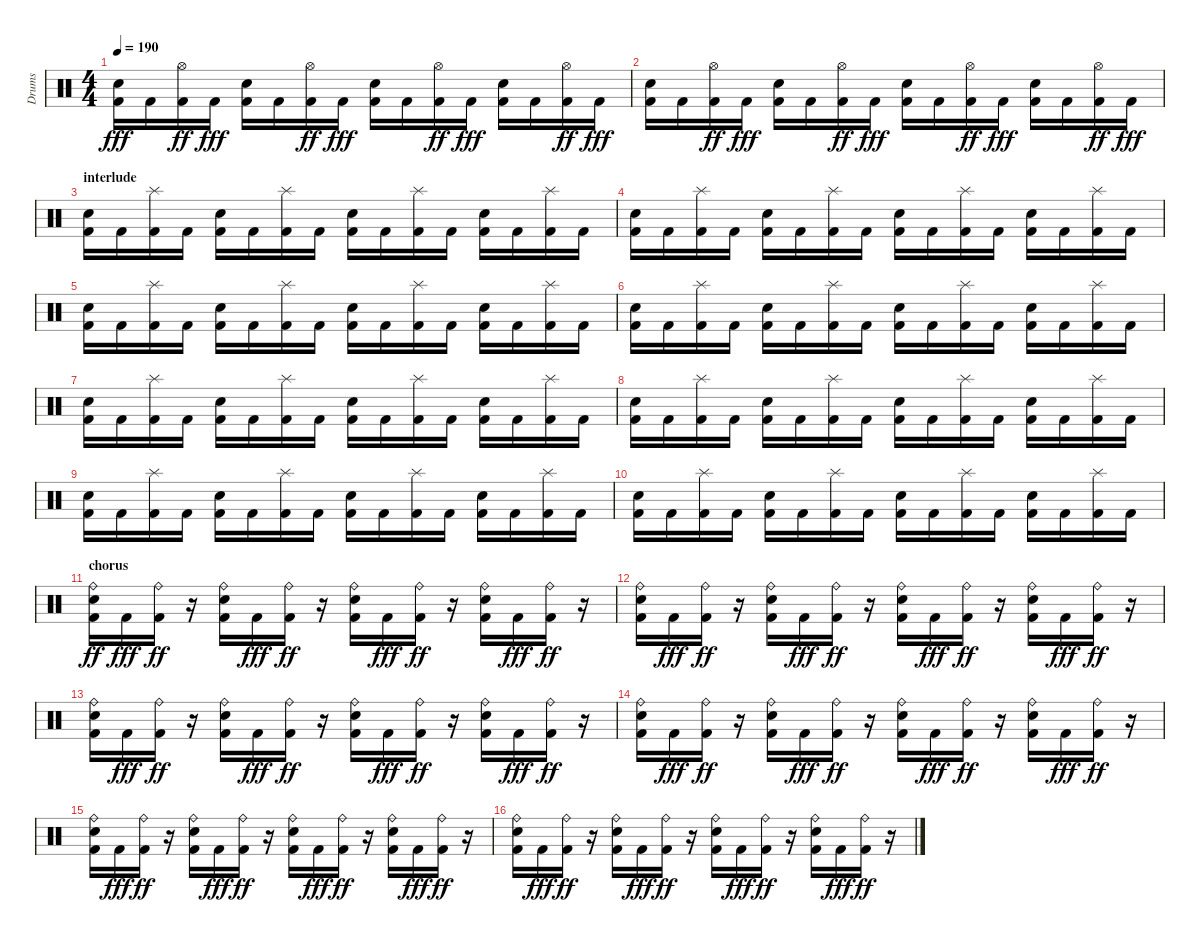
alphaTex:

\track ("Drums" "Drums") {instrument percussion}
\staff {score}
\articulation defaults
\ts (4 4)
\tempo 190
\clef neutral
\ks c
("Kick (hit) 2" "Electric Snare (hit)").16{dy fff} "Kick (hit) 2".16 ("Kick (hit) 2" "Hi-Hat (open)").16{dy ff} "Kick (hit) 2".16{dy fff} ("Kick (hit) 2" "Electric Snare (hit)").16 "Kick (hit) 2".16 ("Kick (hit) 2" "Hi-Hat (open)").16{dy ff} "Kick (hit) 2".16{dy fff} ("Kick (hit) 2" "Electric Snare (hit)").16 "Kick (hit) 2".16 ("Kick (hit) 2" "Hi-Hat (open)").16{dy ff} "Kick (hit) 2".16{dy fff} ("Kick (hit) 2" "Electric Snare (hit)").16 "Kick (hit) 2".16 ("Kick (hit) 2" "Hi-Hat (open)").16{dy ff} "Kick (hit) 2".16{dy fff} |
("Kick (hit) 2" "Electric Snare (hit)").16 "Kick (hit) 2".16 ("Kick (hit) 2" "Hi-Hat (open)").16{dy ff} "Kick (hit) 2".16{dy fff} ("Kick (hit) 2" "Electric Snare (hit)").16 "Kick (hit) 2".16 ("Kick (hit) 2" "Hi-Hat (open)").16{dy ff} "Kick (hit) 2".16{dy fff} ("Kick (hit) 2" "Electric Snare (hit)").16 "Kick (hit) 2".16 ("Kick (hit) 2" "Hi-Hat (open)").16{dy ff} "Kick (hit) 2".16{dy fff} ("Kick (hit) 2" "Electric Snare (hit)").16 "Kick (hit) 2".16 ("Kick (hit) 2" "Hi-Hat (open)").16{dy ff} "Kick (hit) 2".16{dy fff} |
\section ("" "interlude")
("Snare (hit) 2" "Kick (hit) 2").16 "Kick (hit) 2".16 ("Splash (hit)" "Kick (hit) 2").16 "Kick (hit) 2".16 ("Snare (hit) 2" "Kick (hit) 2").16 "Kick (hit) 2".16 ("Splash (hit)" "Kick (hit) 2").16 "Kick (hit) 2".16 ("Snare (hit) 2" "Kick (hit) 2").16 "Kick (hit) 2".16 ("Splash (hit)" "Kick (hit) 2").16 "Kick (hit) 2".16 ("Snare (hit) 2" "Kick (hit) 2").16 "Kick (hit) 2".16 ("Splash (hit)" "Kick (hit) 2").16 "Kick (hit) 2".16 |
("Snare (hit) 2" "Kick (hit) 2").16 "Kick (hit) 2".16 ("Splash (hit)" "Kick (hit) 2").16 "Kick (hit) 2".16 ("Snare (hit) 2" "Kick (hit) 2").16 "Kick (hit) 2".16 ("Splash (hit)" "Kick (hit) 2").16 "Kick (hit) 2".16 ("Snare (hit) 2" "Kick (hit) 2").16 "Kick (hit) 2".16 ("Splash (hit)" "Kick (hit) 2").16 "Kick (hit) 2".16 ("Snare (hit) 2" "Kick (hit) 2").16 "Kick (hit) 2".16 ("Splash (hit)" "Kick (hit) 2").16 "Kick (hit) 2".16 |
("Snare (hit) 2" "Kick (hit) 2").16 "Kick (hit) 2".16 ("Splash (hit)" "Kick (hit) 2").16 "Kick (hit) 2".16 ("Snare (hit) 2" "Kick (hit) 2").16 "Kick (hit) 2".16 ("Splash (hit)" "Kick (hit) 2").16 "Kick (hit) 2".16 ("Snare (hit) 2" "Kick (hit) 2").16 "Kick (hit) 2".16 ("Splash (hit)" "Kick (hit) 2").16 "Kick (hit) 2".16 ("Snare (hit) 2" "Kick (hit) 2").16 "Kick (hit) 2".16 ("Splash (hit)" "Kick (hit) 2").16 "Kick (hit) 2".16 |
("Snare (hit) 2" "Kick (hit) 2").16 "Kick (hit) 2".16 ("Splash (hit)" "Kick (hit) 2").16 "Kick (hit) 2".16 ("Snare (hit) 2" "Kick (hit) 2").16 "Kick (hit) 2".16 ("Splash (hit)" "Kick (hit) 2").16 "Kick (hit) 2".16 ("Snare (hit) 2" "Kick (hit) 2").16 "Kick (hit) 2".16 ("Splash (hit)" "Kick (hit) 2").16 "Kick (hit) 2".16 ("Snare (hit) 2" "Kick (hit) 2").16 "Kick (hit) 2".16 ("Splash (hit)" "Kick (hit) 2").16 "Kick (hit) 2".16 |
("Snare (hit) 2" "Kick (hit) 2").16 "Kick (hit) 2".16 ("Splash (hit)" "Kick (hit) 2").16 "Kick (hit) 2".16 ("Snare (hit) 2" "Kick (hit) 2").16 "Kick (hit) 2".16 ("Splash (hit)" "Kick (hit) 2").16 "Kick (hit) 2".16 ("Snare (hit) 2" "Kick (hit) 2").16 "Kick (hit) 2".16 ("Splash (hit)" "Kick (hit) 2").16 "Kick (hit) 2".16 ("Snare (hit) 2" "Kick (hit) 2").16 "Kick (hit) 2".16 ("Splash (hit)" "Kick (hit) 2").16 "Kick (hit) 2".16 |
("Snare (hit) 2" "Kick (hit) 2").16 "Kick (hit) 2".16 ("Splash (hit)" "Kick (hit) 2").16 "Kick (hit) 2".16 ("Snare (hit) 2" "Kick (hit) 2").16 "Kick (hit) 2".16 ("Splash (hit)" "Kick (hit) 2").16 "Kick (hit) 2".16 ("Snare (hit) 2" "Kick (hit) 2").16 "Kick (hit) 2".16 ("Splash (hit)" "Kick (hit) 2").16 "Kick (hit) 2".16 ("Snare (hit) 2" "Kick (hit) 2").16 "Kick (hit) 2".16 ("Splash (hit)" "Kick (hit) 2").16 "Kick (hit) 2".16 |
("Snare (hit) 2" "Kick (hit) 2").16 "Kick (hit) 2".16 ("Splash (hit)" "Kick (hit) 2").16 "Kick (hit) 2".16 ("Snare (hit) 2" "Kick (hit) 2").16 "Kick (hit) 2".16 ("Splash (hit)" "Kick (hit) 2").16 "Kick (hit) 2".16 ("Snare (hit) 2" "Kick (hit) 2").16 "Kick (hit) 2".16 ("Splash (hit)" "Kick (hit) 2").16 "Kick (hit) 2".16 ("Snare (hit) 2" "Kick (hit) 2").16 "Kick (hit) 2".16 ("Splash (hit)" "Kick (hit) 2").16 "Kick (hit) 2".16 |
("Snare (hit) 2" "Kick (hit) 2").16 "Kick (hit) 2".16 ("Splash (hit)" "Kick (hit) 2").16 "Kick (hit) 2".16 ("Snare (hit) 2" "Kick (hit) 2").16 "Kick (hit) 2".16 ("Splash (hit)" "Kick (hit) 2").16 "Kick (hit) 2".16 ("Snare (hit) 2" "Kick (hit) 2").16 "Kick (hit) 2".16 ("Splash (hit)" "Kick (hit) 2").16 "Kick (hit) 2".16 ("Snare (hit) 2" "Kick (hit) 2").16 "Kick (hit) 2".16 ("Splash (hit)" "Kick (hit) 2").16 "Kick (hit) 2".16 |
\section ("" "chorus")
("Kick (hit) 2" "Ride (bell)" "Electric Snare (hit)").16{dy ff} "Kick (hit) 2".16{dy fff} ("Kick (hit) 2" "Ride (bell)").16{dy ff} r.16 ("Kick (hit) 2" "Ride (bell)" "Electric Snare (hit)").16 "Kick (hit) 2".16{dy fff} ("Kick (hit) 2" "Ride (bell)").16{dy ff} r.16 ("Kick (hit) 2" "Ride (bell)" "Electric Snare (hit)").16 "Kick (hit) 2".16{dy fff} ("Kick (hit) 2" "Ride (bell)").16{dy ff} r.16 ("Kick (hit) 2" "Ride (bell)" "Electric Snare (hit)").16 "Kick (hit) 2".16{dy fff} ("Kick (hit) 2" "Ride (bell)").16{dy ff} r.16 |
("Kick (hit) 2" "Ride (bell)" "Electric Snare (hit)").16 "Kick (hit) 2".16{dy fff} ("Kick (hit) 2" "Ride (bell)").16{dy ff} r.16 ("Kick (hit) 2" "Ride (bell)" "Electric Snare (hit)").16 "Kick (hit) 2".16{dy fff} ("Kick (hit) 2" "Ride (bell)").16{dy ff} r.16 ("Kick (hit) 2" "Ride (bell)" "Electric Snare (hit)").16 "Kick (hit) 2".16{dy fff} ("Kick (hit) 2" "Ride (bell)").16{dy ff} r.16 ("Kick (hit) 2" "Ride (bell)" "Electric Snare (hit)").16 "Kick (hit) 2".16{dy fff} ("Kick (hit) 2" "Ride (bell)").16{dy ff} r.16 |
("Kick (hit) 2" "Ride (bell)" "Electric Snare (hit)").16 "Kick (hit) 2".16{dy fff} ("Kick (hit) 2" "Ride (bell)").16{dy ff} r.16 ("Kick (hit) 2" "Ride (bell)" "Electric Snare (hit)").16 "Kick (hit) 2".16{dy fff} ("Kick (hit) 2" "Ride (bell)").16{dy ff} r.16 ("Kick (hit) 2" "Ride (bell)" "Electric Snare (hit)").16 "Kick (hit) 2".16{dy fff} ("Kick (hit) 2" "Ride (bell)").16{dy ff} r.16 ("Kick (hit) 2" "Ride (bell)" "Electric Snare (hit)").16 "Kick (hit) 2".16{dy fff} ("Kick (hit) 2" "Ride (bell)").16{dy ff} r.16 |
("Kick (hit) 2" "Ride (bell)" "Electric Snare (hit)").16 "Kick (hit) 2".16{dy fff} ("Kick (hit) 2" "Ride (bell)").16{dy ff} r.16 ("Kick (hit) 2" "Ride (bell)" "Electric Snare (hit)").16 "Kick (hit) 2".16{dy fff} ("Kick (hit) 2" "Ride (bell)").16{dy ff} r.16 ("Kick (hit) 2" "Ride (bell)" "Electric Snare (hit)").16 "Kick (hit) 2".16{dy fff} ("Kick (hit) 2" "Ride (bell)").16{dy ff} r.16 ("Kick (hit) 2" "Ride (bell)" "Electric Snare (hit)").16 "Kick (hit) 2".16{dy fff} ("Kick (hit) 2" "Ride (bell)").16{dy ff} r.16 |
("Kick (hit) 2" "Ride (bell)" "Electric Snare (hit)").16 "Kick (hit) 2".16{dy fff} ("Kick (hit) 2" "Ride (bell)").16{dy ff} r.16 ("Kick (hit) 2" "Ride (bell)" "Electric Snare (hit)").16 "Kick (hit) 2".16{dy fff} ("Kick (hit) 2" "Ride (bell)").16{dy ff} r.16 ("Kick (hit) 2" "Ride (bell)" "Electric Snare (hit)").16 "Kick (hit) 2".16{dy fff} ("Kick (hit) 2" "Ride (bell)").16{dy ff} r.16 ("Kick (hit) 2" "Ride (bell)" "Electric Snare (hit)").16 "Kick (hit) 2".16{dy fff} ("Kick (hit) 2" "Ride (bell)").16{dy ff} r.16 |
("Kick (hit) 2" "Ride (bell)" "Electric Snare (hit)").16 "Kick (hit) 2".16{dy fff} ("Kick (hit) 2" "Ride (bell)").16{dy ff} r.16 ("Kick (hit) 2" "Ride (bell)" "Electric Snare (hit)").16 "Kick (hit) 2".16{dy fff} ("Kick (hit) 2" "Ride (bell)").16{dy ff} r.16 ("Kick (hit) 2" "Ride (bell)" "Electric Snare (hit)").16 "Kick (hit) 2".16{dy fff} ("Kick (hit) 2" "Ride (bell)").16{dy ff} r.16 ("Kick (hit) 2" "Ride (bell)" "Electric Snare (hit)").16 "Kick (hit) 2".16{dy fff} ("Kick (hit) 2" "Ride (bell)").16{dy ff} r.16
